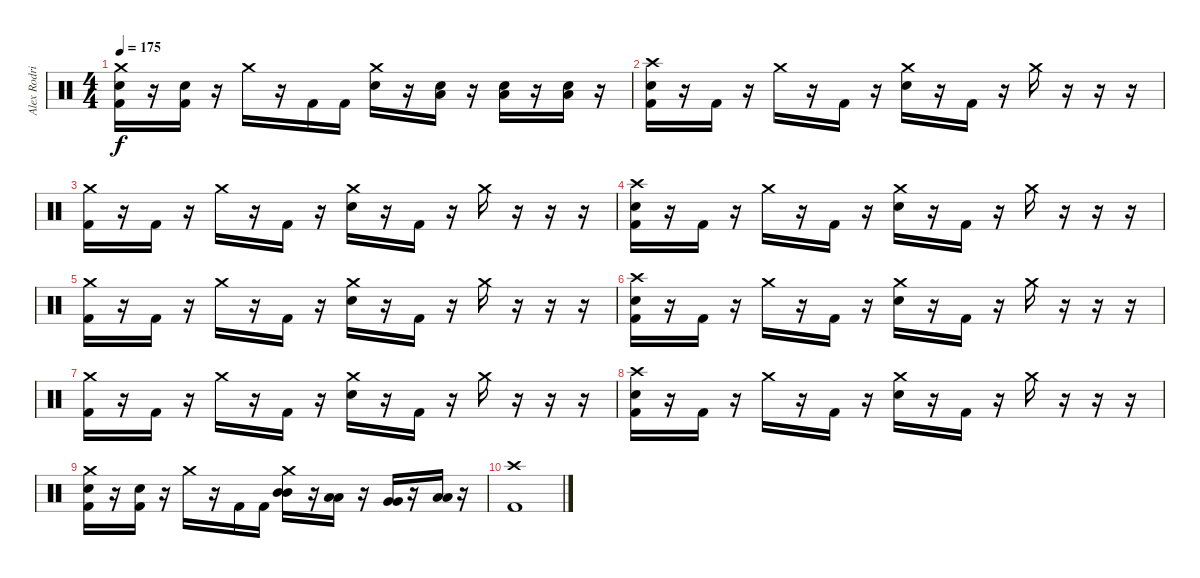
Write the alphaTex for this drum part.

\track ("Alex Rodriguez" "Alex Rodri") {instrument percussion}
\staff {score}
\articulation defaults
\ts (4 4)
\tempo 175
\clef neutral
\ks c
("Crash medium (hit)" "Electric Snare (hit)" "Kick (hit) 2").16{dy f} r.16 ("Electric Snare (hit)" "Kick (hit) 2").16 r.16 "Crash medium (hit)".16 r.16 "Kick (hit) 2".16 "Kick (hit) 2".16 ("Crash medium (hit)" "Electric Snare (hit)").16 r.16 ("Electric Snare (hit)" "Low Floor Tom (hit)").16 r.16 ("Electric Snare (hit)" "Low Floor Tom (hit)").16 r.16 ("Electric Snare (hit)" "Low Floor Tom (hit)").16 r.16 |
("Crash high (hit)" "Electric Snare (hit)" "Kick (hit) 2").16 r.16 "Kick (hit) 2".16 r.16 "Crash medium (hit)".16 r.16 "Kick (hit) 2".16 r.16 ("Crash medium (hit)" "Electric Snare (hit)").16 r.16 "Kick (hit) 2".16 r.16 "Crash medium (hit)".16 r.16 r.16 r.16 |
("Crash medium (hit)" "Kick (hit) 2").16 r.16 "Kick (hit) 2".16 r.16 "Crash medium (hit)".16 r.16 "Kick (hit) 2".16 r.16 ("Crash medium (hit)" "Electric Snare (hit)").16 r.16 "Kick (hit) 2".16 r.16 "Crash medium (hit)".16 r.16 r.16 r.16 |
("Crash high (hit)" "Electric Snare (hit)" "Kick (hit) 2").16 r.16 "Kick (hit) 2".16 r.16 "Crash medium (hit)".16 r.16 "Kick (hit) 2".16 r.16 ("Crash medium (hit)" "Electric Snare (hit)").16 r.16 "Kick (hit) 2".16 r.16 "Crash medium (hit)".16 r.16 r.16 r.16 |
("Crash medium (hit)" "Kick (hit) 2").16 r.16 "Kick (hit) 2".16 r.16 "Crash medium (hit)".16 r.16 "Kick (hit) 2".16 r.16 ("Crash medium (hit)" "Electric Snare (hit)").16 r.16 "Kick (hit) 2".16 r.16 "Crash medium (hit)".16 r.16 r.16 r.16 |
("Crash high (hit)" "Electric Snare (hit)" "Kick (hit) 2").16 r.16 "Kick (hit) 2".16 r.16 "Crash medium (hit)".16 r.16 "Kick (hit) 2".16 r.16 ("Crash medium (hit)" "Electric Snare (hit)").16 r.16 "Kick (hit) 2".16 r.16 "Crash medium (hit)".16 r.16 r.16 r.16 |
("Crash medium (hit)" "Kick (hit) 2").16 r.16 "Kick (hit) 2".16 r.16 "Crash medium (hit)".16 r.16 "Kick (hit) 2".16 r.16 ("Crash medium (hit)" "Electric Snare (hit)").16 r.16 "Kick (hit) 2".16 r.16 "Crash medium (hit)".16 r.16 r.16 r.16 |
("Crash high (hit)" "Electric Snare (hit)" "Kick (hit) 2").16 r.16 "Kick (hit) 2".16 r.16 "Crash medium (hit)".16 r.16 "Kick (hit) 2".16 r.16 ("Crash medium (hit)" "Electric Snare (hit)").16 r.16 "Kick (hit) 2".16 r.16 "Crash medium (hit)".16 r.16 r.16 r.16 |
("Crash medium (hit)" "Electric Snare (hit)" "Kick (hit) 2").16 r.16 ("Electric Snare (hit)" "Kick (hit) 2").16 r.16 "Crash medium (hit)".16 r.16 "Kick (hit) 2".16 "Kick (hit) 2".16 ("Crash medium (hit)" "Mid Tom (hit)" "Mid Tom (hit)").16 r.16 ("Low Tom (hit)" "Low Tom (hit)").16 r.16 ("Very Low Tom (hit)" "Very Low Tom (hit)").16 r.16 ("Low Floor Tom (hit)" "Low Floor Tom (hit)").16 r.16 |
("Crash high (hit)" "Kick (hit) 2").1
